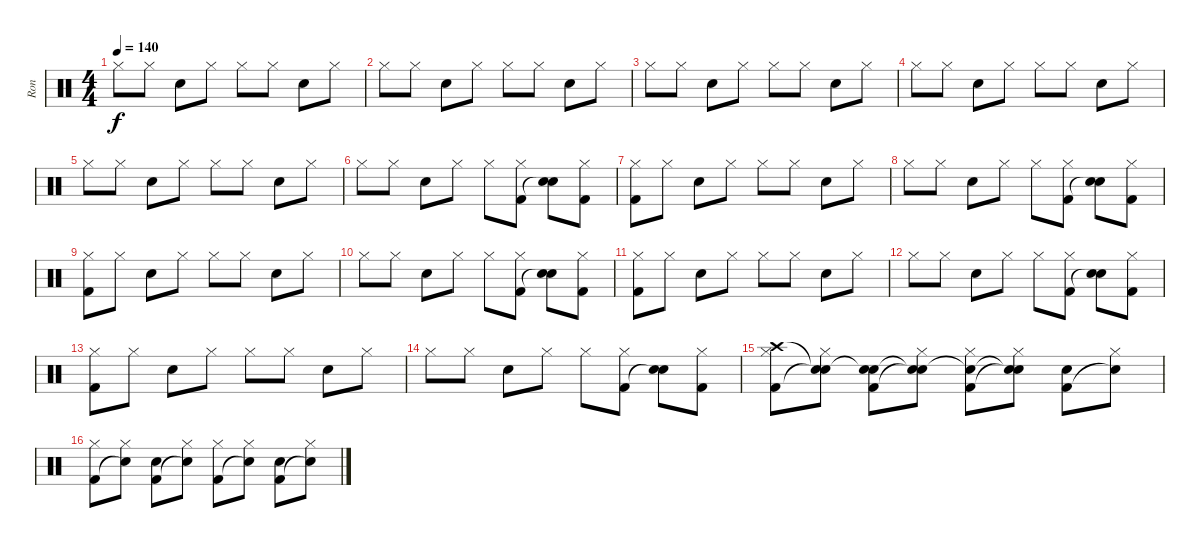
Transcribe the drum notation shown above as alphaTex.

\track ("Ron" "Ron") {instrument percussion}
\staff {score}
\articulation defaults
\ts (4 4)
\tempo 140
\clef neutral
\ks c "Hi-Hat (closed)".8{dy f} "Hi-Hat (closed)".8 "Electric Snare (hit)".8 "Hi-Hat (closed)".8 "Hi-Hat (closed)".8 "Hi-Hat (closed)".8 "Electric Snare (hit)".8 "Hi-Hat (closed)".8
|
"Hi-Hat (closed)".8 "Hi-Hat (closed)".8 "Electric Snare (hit)".8 "Hi-Hat (closed)".8 "Hi-Hat (closed)".8 "Hi-Hat (closed)".8 "Electric Snare (hit)".8 "Hi-Hat (closed)".8 |
"Hi-Hat (closed)".8 "Hi-Hat (closed)".8 "Electric Snare (hit)".8 "Hi-Hat (closed)".8 "Hi-Hat (closed)".8 "Hi-Hat (closed)".8 "Electric Snare (hit)".8 "Hi-Hat (closed)".8 |
"Hi-Hat (closed)".8 "Hi-Hat (closed)".8 "Electric Snare (hit)".8 "Hi-Hat (closed)".8 "Hi-Hat (closed)".8 "Hi-Hat (closed)".8 "Electric Snare (hit)".8 "Hi-Hat (closed)".8 |
"Hi-Hat (closed)".8 "Hi-Hat (closed)".8 "Electric Snare (hit)".8 "Hi-Hat (closed)".8 "Hi-Hat (closed)".8 "Hi-Hat (closed)".8 "Electric Snare (hit)".8 "Hi-Hat (closed)".8 |
"Hi-Hat (closed)".8 "Hi-Hat (closed)".8 "Electric Snare (hit)".8 "Hi-Hat (closed)".8 "Hi-Hat (closed)".8 ("Hi-Hat (closed)" "Kick (hit) 2").8 ("Electric Snare (hit)" "Snare (hit)"{t}).8 ("Hi-Hat (closed)" "Kick (hit) 2").8 |
("Hi-Hat (closed)" "Kick (hit) 2").8 "Hi-Hat (closed)".8 "Electric Snare (hit)".8 "Hi-Hat (closed)".8 "Hi-Hat (closed)".8 "Hi-Hat (closed)".8 "Electric Snare (hit)".8 "Hi-Hat (closed)".8 |
"Hi-Hat (closed)".8 "Hi-Hat (closed)".8 "Electric Snare (hit)".8 "Hi-Hat (closed)".8 "Hi-Hat (closed)".8 ("Hi-Hat (closed)" "Kick (hit) 2").8 ("Electric Snare (hit)" "Snare (hit)"{t}).8 ("Hi-Hat (closed)" "Kick (hit) 2").8 |
("Hi-Hat (closed)" "Kick (hit) 2").8 "Hi-Hat (closed)".8 "Electric Snare (hit)".8 "Hi-Hat (closed)".8 "Hi-Hat (closed)".8 "Hi-Hat (closed)".8 "Electric Snare (hit)".8 "Hi-Hat (closed)".8 |
"Hi-Hat (closed)".8 "Hi-Hat (closed)".8 "Electric Snare (hit)".8 "Hi-Hat (closed)".8 "Hi-Hat (closed)".8 ("Hi-Hat (closed)" "Kick (hit) 2").8 ("Electric Snare (hit)" "Snare (hit)"{t}).8 ("Hi-Hat (closed)" "Kick (hit) 2").8 |
("Hi-Hat (closed)" "Kick (hit) 2").8 "Hi-Hat (closed)".8 "Electric Snare (hit)".8 "Hi-Hat (closed)".8 "Hi-Hat (closed)".8 "Hi-Hat (closed)".8 "Electric Snare (hit)".8 "Hi-Hat (closed)".8 |
"Hi-Hat (closed)".8 "Hi-Hat (closed)".8 "Electric Snare (hit)".8 "Hi-Hat (closed)".8 "Hi-Hat (closed)".8 ("Hi-Hat (closed)" "Kick (hit) 2").8 ("Electric Snare (hit)" "Snare (hit)"{t}).8 ("Hi-Hat (closed)" "Kick (hit) 2").8 |
("Hi-Hat (closed)" "Kick (hit) 2").8 "Hi-Hat (closed)".8 "Electric Snare (hit)".8 "Hi-Hat (closed)".8 "Hi-Hat (closed)".8 "Hi-Hat (closed)".8 "Electric Snare (hit)".8 "Hi-Hat (closed)".8 |
"Hi-Hat (closed)".8 "Hi-Hat (closed)".8 "Electric Snare (hit)".8 "Hi-Hat (closed)".8 "Hi-Hat (closed)".8 ("Hi-Hat (closed)" "Kick (hit) 2").8 ("Electric Snare (hit)" "Snare (hit)"{t}).8 ("Hi-Hat (closed)" "Kick (hit) 2").8 |
("Crash high (hit)" "Hi-Hat (closed)" "Kick (hit) 2").8 ("Snare (hit)"{t} "Hi-Hat (closed)" "Snare (hit)"{t}).8 ("Snare (hit)"{t} "Electric Snare (hit)" "Kick (hit) 2").8 ("Snare (hit)"{t} "Hi-Hat (closed)" "Snare (hit)"{t}).8 ("Snare (hit)"{t} "Hi-Hat (closed)" "Kick (hit) 2").8 ("Snare (hit)"{t} "Hi-Hat (closed)" "Snare (hit)"{t}).8 ("Electric Snare (hit)" "Kick (hit) 2").8 ("Hi-Hat (closed)" "Snare (hit)"{t}).8 |
("Hi-Hat (closed)" "Kick (hit) 2").8 ("Hi-Hat (closed)" "Snare (hit)"{t}).8 ("Electric Snare (hit)" "Kick (hit) 2").8 ("Hi-Hat (closed)" "Snare (hit)"{t}).8 ("Hi-Hat (closed)" "Kick (hit) 2").8 ("Hi-Hat (closed)" "Snare (hit)"{t}).8 ("Electric Snare (hit)" "Kick (hit) 2").8 ("Hi-Hat (closed)" "Snare (hit)"{t}).8
